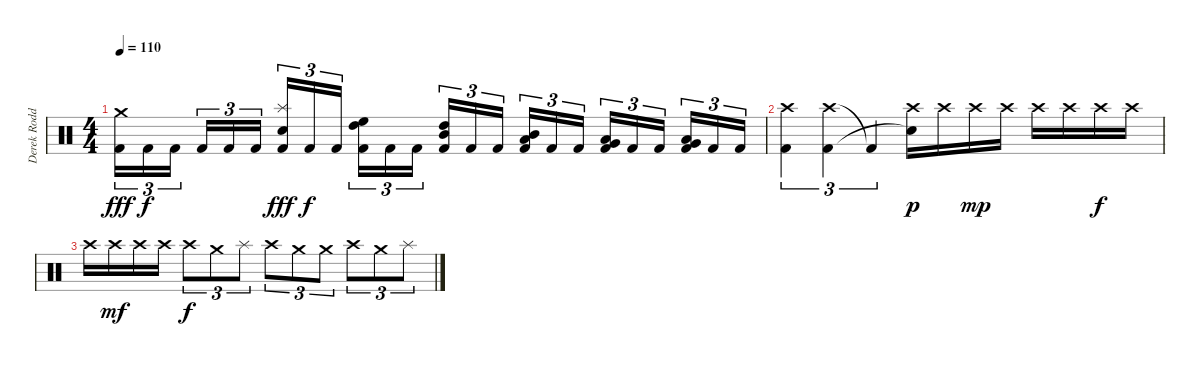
\track ("Derek Roddy" "Derek Rodd") {instrument percussion}
\staff {score}
\articulation defaults
\ts (4 4)
\tempo 110
\clef neutral
\ks c
("Crash medium (hit)" "Kick (hit) 2").16{tu (3 2) dy fff} "Kick (hit) 2".16{tu (3 2) dy f} "Kick (hit) 2".16{tu (3 2)} "Kick (hit) 2".16{tu (3 2)} "Kick (hit) 2".16{tu (3 2)} "Kick (hit) 2".16{tu (3 2)} ("Splash (hit)" "Electric Snare (hit)" "Kick (hit) 2").16{tu (3 2) dy fff} "Kick (hit) 2".16{tu (3 2) dy f} "Kick (hit) 2".16{tu (3 2)} ("High Tom (hit)" "High Floor Tom (hit)" "Kick (hit) 2").16{tu (3 2)} "Kick (hit) 2".16{tu (3 2)} "Kick (hit) 2".16{tu (3 2)} ("Mid Tom (hit)" "High Tom (hit)" "Kick (hit) 2").16{tu (3 2)} "Kick (hit) 2".16{tu (3 2)} "Kick (hit) 2".16{tu (3 2)} ("Low Tom (hit)" "Mid Tom (hit)" "Kick (hit) 2").16{tu (3 2)} "Kick (hit) 2".16{tu (3 2)} "Kick (hit) 2".16{tu (3 2)} ("Very Low Tom (hit)" "Low Tom (hit)" "Kick (hit) 2").16{tu (3 2)} "Kick (hit) 2".16{tu (3 2)} "Kick (hit) 2".16{tu (3 2)} ("Low Floor Tom (hit)" "Very Low Tom (hit)" "Kick (hit) 2").16{tu (3 2)} "Kick (hit) 2".16{tu (3 2)} "Kick (hit) 2".16{tu (3 2)} |
("Crash high (hit)" "Kick (hit) 2").4{tu (3 2)} ("Crash high (hit)" "Kick (hit) 2").4{tu (3 2)} "Kick (hit) 2"{t}.4{tu (3 2)} ("Crash high (hit)" "Snare (hit)"{t}).16{dy p} "Crash high (hit)".16 "Crash high (hit)".16{dy mp} "Crash high (hit)".16 "Crash high (hit)".16 "Crash high (hit)".16 "Crash high (hit)".16{dy f} "Crash high (hit)".16 |
"Crash high (hit)".16 "Crash high (hit)".16{dy mf} "Crash high (hit)".16 "Crash high (hit)".16 "Crash high (hit)".8{tu (3 2) dy f} "Crash medium (hit)".8{tu (3 2)} "Splash (hit)".8{tu (3 2)} "Crash high (hit)".8{tu (3 2)} "Crash medium (hit)".8{tu (3 2)} "Crash medium (hit)".8{tu (3 2)} "Crash high (hit)".8{tu (3 2)} "Crash medium (hit)".8{tu (3 2)} "Splash (hit)".8{tu (3 2)}
